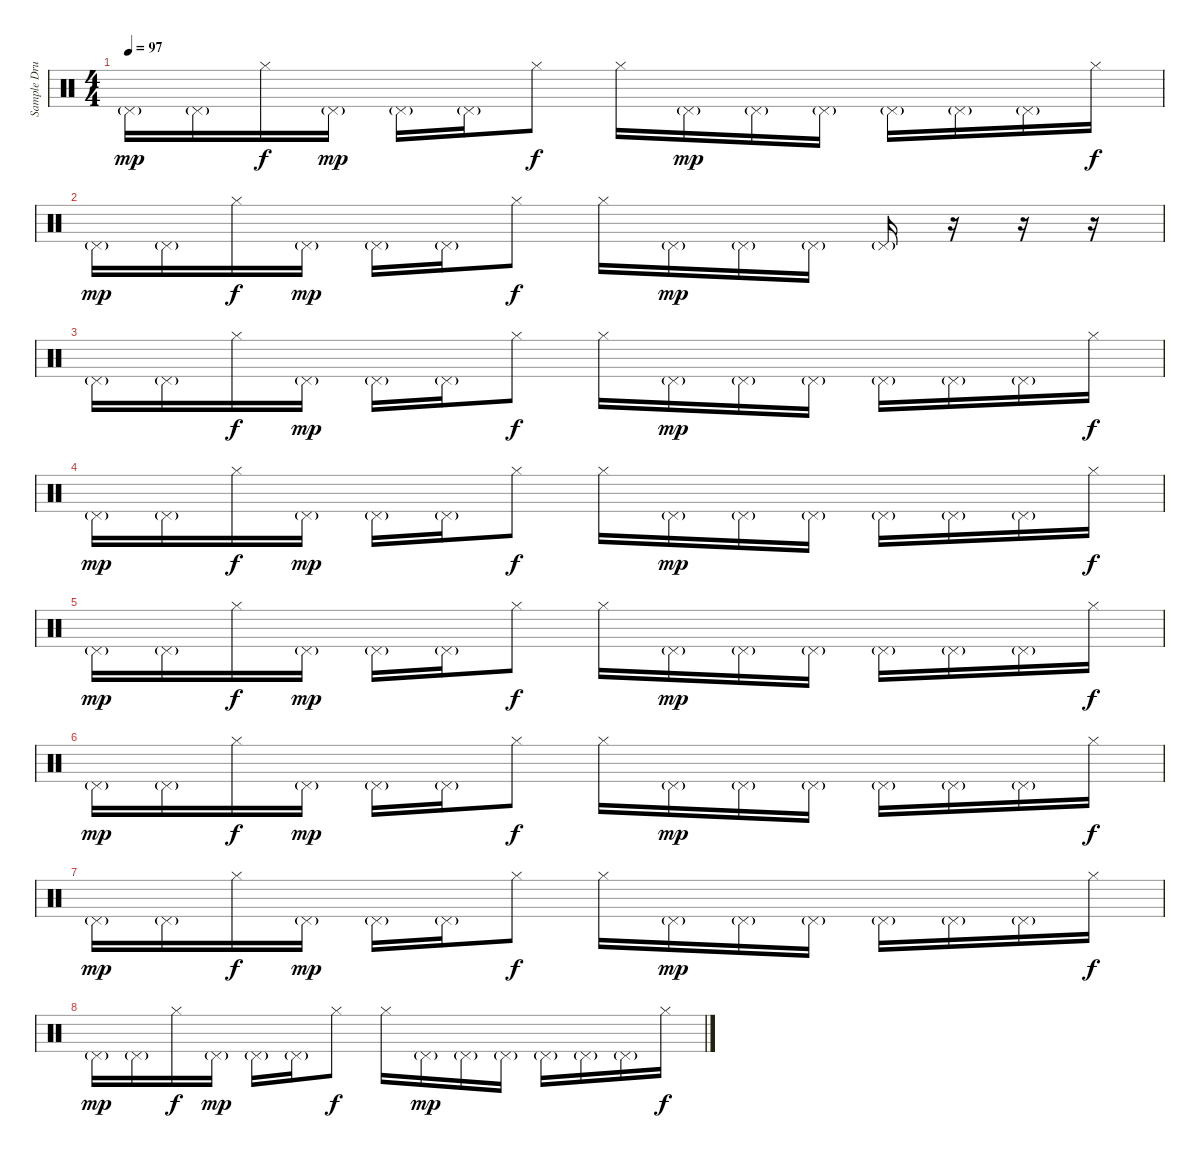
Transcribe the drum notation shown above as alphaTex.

\track ("Sample Drums" "Sample Dru") {instrument percussion}
\staff {score}
\articulation defaults
\ts (4 4)
\tempo 97
\clef neutral
\ks c "Pedal Hi-Hat (hit)"{g}.16{dy mp} "Pedal Hi-Hat (hit)"{g}.16 "Hi-Hat (closed)".16{dy f} "Pedal Hi-Hat (hit)"{g}.16{dy mp} "Pedal Hi-Hat (hit)"{g}.16 "Pedal Hi-Hat (hit)"{g}.16 "Hi-Hat (closed)".8{dy f} "Hi-Hat (closed)".16 "Pedal Hi-Hat (hit)"{g}.16{dy mp} "Pedal Hi-Hat (hit)"{g}.16 "Pedal Hi-Hat (hit)"{g}.16 "Pedal Hi-Hat (hit)"{g}.16 "Pedal Hi-Hat (hit)"{g}.16 "Pedal Hi-Hat (hit)"{g}.16 "Hi-Hat (closed)".16{dy f}
|
"Pedal Hi-Hat (hit)"{g}.16{dy mp} "Pedal Hi-Hat (hit)"{g}.16 "Hi-Hat (closed)".16{dy f} "Pedal Hi-Hat (hit)"{g}.16{dy mp} "Pedal Hi-Hat (hit)"{g}.16 "Pedal Hi-Hat (hit)"{g}.16 "Hi-Hat (closed)".8{dy f} "Hi-Hat (closed)".16 "Pedal Hi-Hat (hit)"{g}.16{dy mp} "Pedal Hi-Hat (hit)"{g}.16 "Pedal Hi-Hat (hit)"{g}.16 "Pedal Hi-Hat (hit)"{g}.16 r.16 r.16 r.16 |
"Pedal Hi-Hat (hit)"{g}.16 "Pedal Hi-Hat (hit)"{g}.16 "Hi-Hat (closed)".16{dy f} "Pedal Hi-Hat (hit)"{g}.16{dy mp} "Pedal Hi-Hat (hit)"{g}.16 "Pedal Hi-Hat (hit)"{g}.16 "Hi-Hat (closed)".8{dy f} "Hi-Hat (closed)".16 "Pedal Hi-Hat (hit)"{g}.16{dy mp} "Pedal Hi-Hat (hit)"{g}.16 "Pedal Hi-Hat (hit)"{g}.16 "Pedal Hi-Hat (hit)"{g}.16 "Pedal Hi-Hat (hit)"{g}.16 "Pedal Hi-Hat (hit)"{g}.16 "Hi-Hat (closed)".16{dy f} |
"Pedal Hi-Hat (hit)"{g}.16{dy mp} "Pedal Hi-Hat (hit)"{g}.16 "Hi-Hat (closed)".16{dy f} "Pedal Hi-Hat (hit)"{g}.16{dy mp} "Pedal Hi-Hat (hit)"{g}.16 "Pedal Hi-Hat (hit)"{g}.16 "Hi-Hat (closed)".8{dy f} "Hi-Hat (closed)".16 "Pedal Hi-Hat (hit)"{g}.16{dy mp} "Pedal Hi-Hat (hit)"{g}.16 "Pedal Hi-Hat (hit)"{g}.16 "Pedal Hi-Hat (hit)"{g}.16 "Pedal Hi-Hat (hit)"{g}.16 "Pedal Hi-Hat (hit)"{g}.16 "Hi-Hat (closed)".16{dy f} |
"Pedal Hi-Hat (hit)"{g}.16{dy mp} "Pedal Hi-Hat (hit)"{g}.16 "Hi-Hat (closed)".16{dy f} "Pedal Hi-Hat (hit)"{g}.16{dy mp} "Pedal Hi-Hat (hit)"{g}.16 "Pedal Hi-Hat (hit)"{g}.16 "Hi-Hat (closed)".8{dy f} "Hi-Hat (closed)".16 "Pedal Hi-Hat (hit)"{g}.16{dy mp} "Pedal Hi-Hat (hit)"{g}.16 "Pedal Hi-Hat (hit)"{g}.16 "Pedal Hi-Hat (hit)"{g}.16 "Pedal Hi-Hat (hit)"{g}.16 "Pedal Hi-Hat (hit)"{g}.16 "Hi-Hat (closed)".16{dy f} |
"Pedal Hi-Hat (hit)"{g}.16{dy mp} "Pedal Hi-Hat (hit)"{g}.16 "Hi-Hat (closed)".16{dy f} "Pedal Hi-Hat (hit)"{g}.16{dy mp} "Pedal Hi-Hat (hit)"{g}.16 "Pedal Hi-Hat (hit)"{g}.16 "Hi-Hat (closed)".8{dy f} "Hi-Hat (closed)".16 "Pedal Hi-Hat (hit)"{g}.16{dy mp} "Pedal Hi-Hat (hit)"{g}.16 "Pedal Hi-Hat (hit)"{g}.16 "Pedal Hi-Hat (hit)"{g}.16 "Pedal Hi-Hat (hit)"{g}.16 "Pedal Hi-Hat (hit)"{g}.16 "Hi-Hat (closed)".16{dy f} |
"Pedal Hi-Hat (hit)"{g}.16{dy mp} "Pedal Hi-Hat (hit)"{g}.16 "Hi-Hat (closed)".16{dy f} "Pedal Hi-Hat (hit)"{g}.16{dy mp} "Pedal Hi-Hat (hit)"{g}.16 "Pedal Hi-Hat (hit)"{g}.16 "Hi-Hat (closed)".8{dy f} "Hi-Hat (closed)".16 "Pedal Hi-Hat (hit)"{g}.16{dy mp} "Pedal Hi-Hat (hit)"{g}.16 "Pedal Hi-Hat (hit)"{g}.16 "Pedal Hi-Hat (hit)"{g}.16 "Pedal Hi-Hat (hit)"{g}.16 "Pedal Hi-Hat (hit)"{g}.16 "Hi-Hat (closed)".16{dy f} |
"Pedal Hi-Hat (hit)"{g}.16{dy mp} "Pedal Hi-Hat (hit)"{g}.16 "Hi-Hat (closed)".16{dy f} "Pedal Hi-Hat (hit)"{g}.16{dy mp} "Pedal Hi-Hat (hit)"{g}.16 "Pedal Hi-Hat (hit)"{g}.16 "Hi-Hat (closed)".8{dy f} "Hi-Hat (closed)".16 "Pedal Hi-Hat (hit)"{g}.16{dy mp} "Pedal Hi-Hat (hit)"{g}.16 "Pedal Hi-Hat (hit)"{g}.16 "Pedal Hi-Hat (hit)"{g}.16 "Pedal Hi-Hat (hit)"{g}.16 "Pedal Hi-Hat (hit)"{g}.16 "Hi-Hat (closed)".16{dy f}
